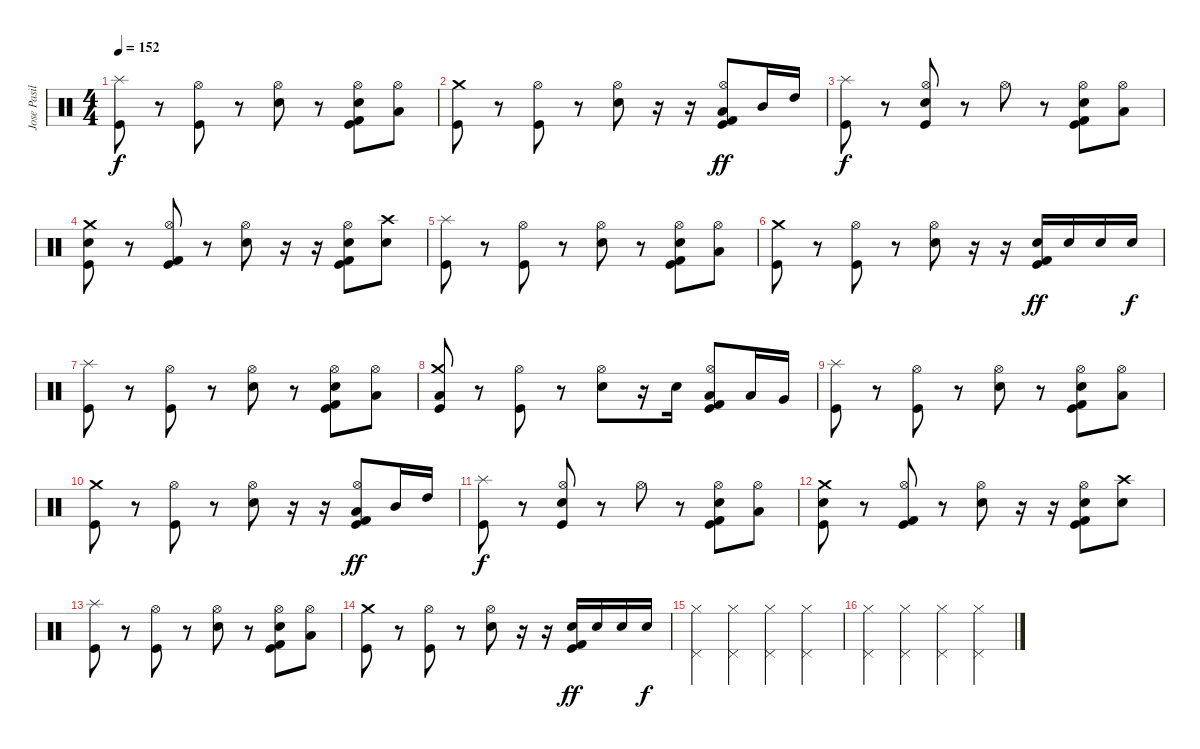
\track ("Jose Pasillas" "Jose Pasil") {instrument percussion}
\staff {score}
\articulation defaults
\ts (4 4)
\tempo 152
\clef neutral
\ks c
("Splash (hit)" "Kick (hit)").8{dy f} r.8 ("Hi-Hat (open)" "Kick (hit)").8 r.8 ("Hi-Hat (open)" "Electric Snare (hit)").8 r.8 ("Hi-Hat (open)" "Electric Snare (hit)" "Kick (hit) 2" "Kick (hit)").8 ("Hi-Hat (open)" "Low Tom (hit)").8 |
("Crash medium (hit)" "Kick (hit)").8 r.8 ("Hi-Hat (open)" "Kick (hit)").8 r.8 ("Hi-Hat (open)" "Electric Snare (hit)").8 r.16 r.16 ("Hi-Hat (open)" "Low Tom (hit)" "Kick (hit) 2" "Kick (hit)").8{dy ff} "Mid Tom (hit)".16 "High Tom (hit)".16 |
("Splash (hit)" "Kick (hit)").8{dy f} r.8 ("Hi-Hat (open)" "Electric Snare (hit)" "Kick (hit)").8 r.8 "Hi-Hat (open)".8 r.8 ("Hi-Hat (open)" "Electric Snare (hit)" "Kick (hit) 2" "Kick (hit)").8 ("Hi-Hat (open)" "Low Tom (hit)").8 |
("Crash medium (hit)" "Electric Snare (hit)" "Kick (hit)").8 r.8 ("Hi-Hat (open)" "Kick (hit) 2" "Kick (hit)").8 r.8 ("Hi-Hat (open)" "Electric Snare (hit)").8 r.16 r.16 ("Hi-Hat (open)" "Electric Snare (hit)" "Kick (hit) 2" "Kick (hit)").8 ("Crash high (hit)" "Electric Snare (hit)").8 |
("Splash (hit)" "Kick (hit)").8 r.8 ("Hi-Hat (open)" "Kick (hit)").8 r.8 ("Hi-Hat (open)" "Electric Snare (hit)").8 r.8 ("Hi-Hat (open)" "Electric Snare (hit)" "Kick (hit) 2" "Kick (hit)").8 ("Hi-Hat (open)" "Low Tom (hit)").8 |
("Crash medium (hit)" "Kick (hit)").8 r.8 ("Hi-Hat (open)" "Kick (hit)").8 r.8 ("Hi-Hat (open)" "Electric Snare (hit)").8 r.16 r.16 ("Electric Snare (hit)" "Kick (hit) 2" "Kick (hit)").16{dy ff} "Electric Snare (hit)".16 "Electric Snare (hit)".16 "Electric Snare (hit)".16{dy f} |
("Splash (hit)" "Kick (hit)").8 r.8 ("Hi-Hat (open)" "Kick (hit)").8 r.8 ("Hi-Hat (open)" "Electric Snare (hit)").8 r.8 ("Hi-Hat (open)" "Electric Snare (hit)" "Kick (hit) 2" "Kick (hit)").8 ("Hi-Hat (open)" "Low Tom (hit)").8 |
("Crash medium (hit)" "Low Floor Tom (hit)" "Kick (hit)").8 r.8 ("Hi-Hat (open)" "Kick (hit)").8 r.8 ("Hi-Hat (open)" "Electric Snare (hit)").8 r.16 "Electric Snare (hit)".16 ("Hi-Hat (open)" "Low Tom (hit)" "Kick (hit) 2" "Kick (hit)").8 "Low Floor Tom (hit)".16 "Very Low Tom (hit)".16 |
("Splash (hit)" "Kick (hit)").8 r.8 ("Hi-Hat (open)" "Kick (hit)").8 r.8 ("Hi-Hat (open)" "Electric Snare (hit)").8 r.8 ("Hi-Hat (open)" "Electric Snare (hit)" "Kick (hit) 2" "Kick (hit)").8 ("Hi-Hat (open)" "Low Tom (hit)").8 |
("Crash medium (hit)" "Kick (hit)").8 r.8 ("Hi-Hat (open)" "Kick (hit)").8 r.8 ("Hi-Hat (open)" "Electric Snare (hit)").8 r.16 r.16 ("Hi-Hat (open)" "Low Tom (hit)" "Kick (hit) 2" "Kick (hit)").8{dy ff} "Mid Tom (hit)".16 "High Tom (hit)".16 |
("Splash (hit)" "Kick (hit)").8{dy f} r.8 ("Hi-Hat (open)" "Electric Snare (hit)" "Kick (hit)").8 r.8 "Hi-Hat (open)".8 r.8 ("Hi-Hat (open)" "Electric Snare (hit)" "Kick (hit) 2" "Kick (hit)").8 ("Hi-Hat (open)" "Low Tom (hit)").8 |
("Crash medium (hit)" "Electric Snare (hit)" "Kick (hit)").8 r.8 ("Hi-Hat (open)" "Kick (hit) 2" "Kick (hit)").8 r.8 ("Hi-Hat (open)" "Electric Snare (hit)").8 r.16 r.16 ("Hi-Hat (open)" "Electric Snare (hit)" "Kick (hit) 2" "Kick (hit)").8 ("Crash high (hit)" "Electric Snare (hit)").8 |
("Splash (hit)" "Kick (hit)").8 r.8 ("Hi-Hat (open)" "Kick (hit)").8 r.8 ("Hi-Hat (open)" "Electric Snare (hit)").8 r.8 ("Hi-Hat (open)" "Electric Snare (hit)" "Kick (hit) 2" "Kick (hit)").8 ("Hi-Hat (open)" "Low Tom (hit)").8 |
("Crash medium (hit)" "Kick (hit)").8 r.8 ("Hi-Hat (open)" "Kick (hit)").8 r.8 ("Hi-Hat (open)" "Electric Snare (hit)").8 r.16 r.16 ("Electric Snare (hit)" "Kick (hit) 2" "Kick (hit)").16{dy ff} "Electric Snare (hit)".16 "Electric Snare (hit)".16 "Electric Snare (hit)".16{dy f} |
("Hi-Hat (closed)" "Pedal Hi-Hat (hit)").4 ("Hi-Hat (closed)" "Pedal Hi-Hat (hit)").4 ("Hi-Hat (closed)" "Pedal Hi-Hat (hit)").4 ("Hi-Hat (closed)" "Pedal Hi-Hat (hit)").4 |
("Hi-Hat (closed)" "Pedal Hi-Hat (hit)").4 ("Hi-Hat (closed)" "Pedal Hi-Hat (hit)").4 ("Hi-Hat (closed)" "Pedal Hi-Hat (hit)").4 ("Hi-Hat (closed)" "Pedal Hi-Hat (hit)").4
